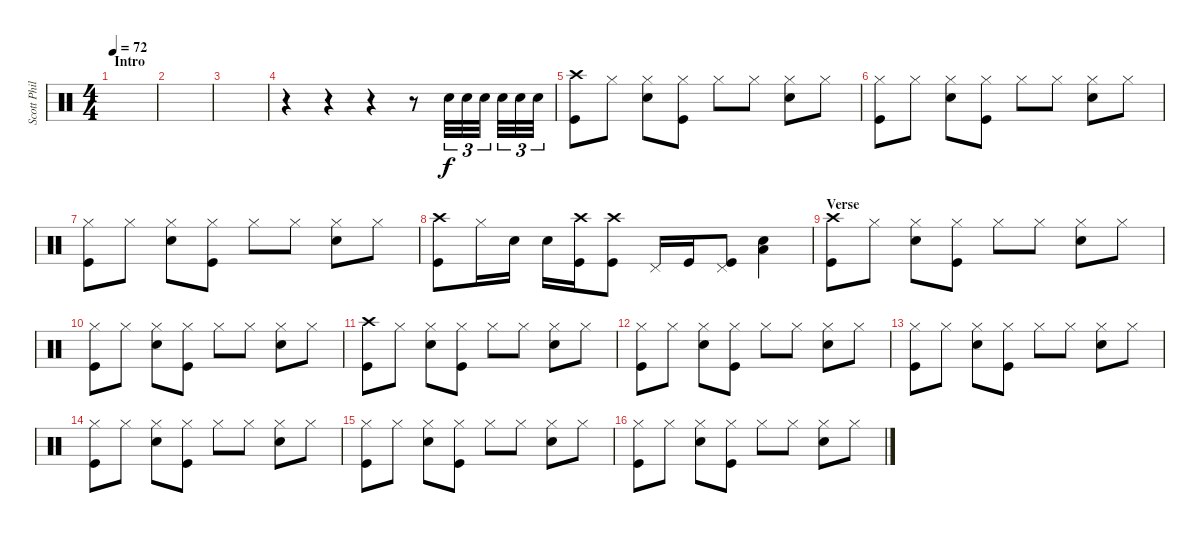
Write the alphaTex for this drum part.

\track ("Scott Phillips" "Scott Phil") {instrument percussion}
\staff {score}
\articulation defaults
\ts (4 4)
\section ("" "Intro")
\tempo 72
\clef neutral
\ks c
|
|
|
r.4 r.4 r.4 r.8 "Snare (hit) 2".32{tu (3 2)} "Snare (hit) 2".32{tu (3 2)} "Snare (hit) 2".32{tu (3 2)} "Snare (hit) 2".32{tu (3 2)} "Snare (hit) 2".32{tu (3 2)} "Snare (hit) 2".32{tu (3 2)} |
("Crash high (hit)" "Kick (hit)").8 "Hi-Hat (closed)".8 ("Hi-Hat (closed)" "Snare (hit) 2").8 ("Hi-Hat (closed)" "Kick (hit)").8 "Hi-Hat (closed)".8 "Hi-Hat (closed)".8 ("Hi-Hat (closed)" "Snare (hit) 2").8 "Hi-Hat (closed)".8 |
("Hi-Hat (closed)" "Kick (hit)").8 "Hi-Hat (closed)".8 ("Hi-Hat (closed)" "Snare (hit) 2").8 ("Hi-Hat (closed)" "Kick (hit)").8 "Hi-Hat (closed)".8 "Hi-Hat (closed)".8 ("Hi-Hat (closed)" "Snare (hit) 2").8 "Hi-Hat (closed)".8 |
("Hi-Hat (closed)" "Kick (hit)").8 "Hi-Hat (closed)".8 ("Hi-Hat (closed)" "Snare (hit) 2").8 ("Hi-Hat (closed)" "Kick (hit)").8 "Hi-Hat (closed)".8 "Hi-Hat (closed)".8 ("Hi-Hat (closed)" "Snare (hit) 2").8 "Hi-Hat (closed)".8 |
("Crash high (hit)" "Kick (hit)").8 "Hi-Hat (closed)".16 "Snare (hit) 2".16 "Snare (hit) 2".16 ("Crash high (hit)" "Kick (hit)").16 ("Crash high (hit)" "Kick (hit)").8 "Pedal Hi-Hat (hit)".16 "Kick (hit)".16 ("Pedal Hi-Hat (hit)" "Kick (hit)").8 ("Low Tom (hit)" "Snare (hit) 2").4 |
\section ("" "Verse")
("Crash high (hit)" "Kick (hit)").8 "Hi-Hat (closed)".8 ("Hi-Hat (closed)" "Snare (hit) 2").8 ("Hi-Hat (closed)" "Kick (hit)").8 "Hi-Hat (closed)".8 "Hi-Hat (closed)".8 ("Hi-Hat (closed)" "Snare (hit) 2").8 "Hi-Hat (closed)".8 |
("Hi-Hat (closed)" "Kick (hit)").8 "Hi-Hat (closed)".8 ("Hi-Hat (closed)" "Snare (hit) 2").8 ("Hi-Hat (closed)" "Kick (hit)").8 "Hi-Hat (closed)".8 "Hi-Hat (closed)".8 ("Hi-Hat (closed)" "Snare (hit) 2").8 "Hi-Hat (closed)".8 |
("Crash high (hit)" "Kick (hit)").8 "Hi-Hat (closed)".8 ("Hi-Hat (closed)" "Snare (hit) 2").8 ("Hi-Hat (closed)" "Kick (hit)").8 "Hi-Hat (closed)".8 "Hi-Hat (closed)".8 ("Hi-Hat (closed)" "Snare (hit) 2").8 "Hi-Hat (closed)".8 |
("Hi-Hat (closed)" "Kick (hit)").8 "Hi-Hat (closed)".8 ("Hi-Hat (closed)" "Snare (hit) 2").8 ("Hi-Hat (closed)" "Kick (hit)").8 "Hi-Hat (closed)".8 "Hi-Hat (closed)".8 ("Hi-Hat (closed)" "Snare (hit) 2").8 "Hi-Hat (closed)".8 |
("Hi-Hat (closed)" "Kick (hit)").8 "Hi-Hat (closed)".8 ("Hi-Hat (closed)" "Snare (hit) 2").8 ("Hi-Hat (closed)" "Kick (hit)").8 "Hi-Hat (closed)".8 "Hi-Hat (closed)".8 ("Hi-Hat (closed)" "Snare (hit) 2").8 "Hi-Hat (closed)".8 |
("Hi-Hat (closed)" "Kick (hit)").8 "Hi-Hat (closed)".8 ("Hi-Hat (closed)" "Snare (hit) 2").8 ("Hi-Hat (closed)" "Kick (hit)").8 "Hi-Hat (closed)".8 "Hi-Hat (closed)".8 ("Hi-Hat (closed)" "Snare (hit) 2").8 "Hi-Hat (closed)".8 |
("Hi-Hat (closed)" "Kick (hit)").8 "Hi-Hat (closed)".8 ("Hi-Hat (closed)" "Snare (hit) 2").8 ("Hi-Hat (closed)" "Kick (hit)").8 "Hi-Hat (closed)".8 "Hi-Hat (closed)".8 ("Hi-Hat (closed)" "Snare (hit) 2").8 "Hi-Hat (closed)".8 |
("Hi-Hat (closed)" "Kick (hit)").8 "Hi-Hat (closed)".8 ("Hi-Hat (closed)" "Snare (hit) 2").8 ("Hi-Hat (closed)" "Kick (hit)").8 "Hi-Hat (closed)".8 "Hi-Hat (closed)".8 ("Hi-Hat (closed)" "Snare (hit) 2").8 "Hi-Hat (closed)".8
